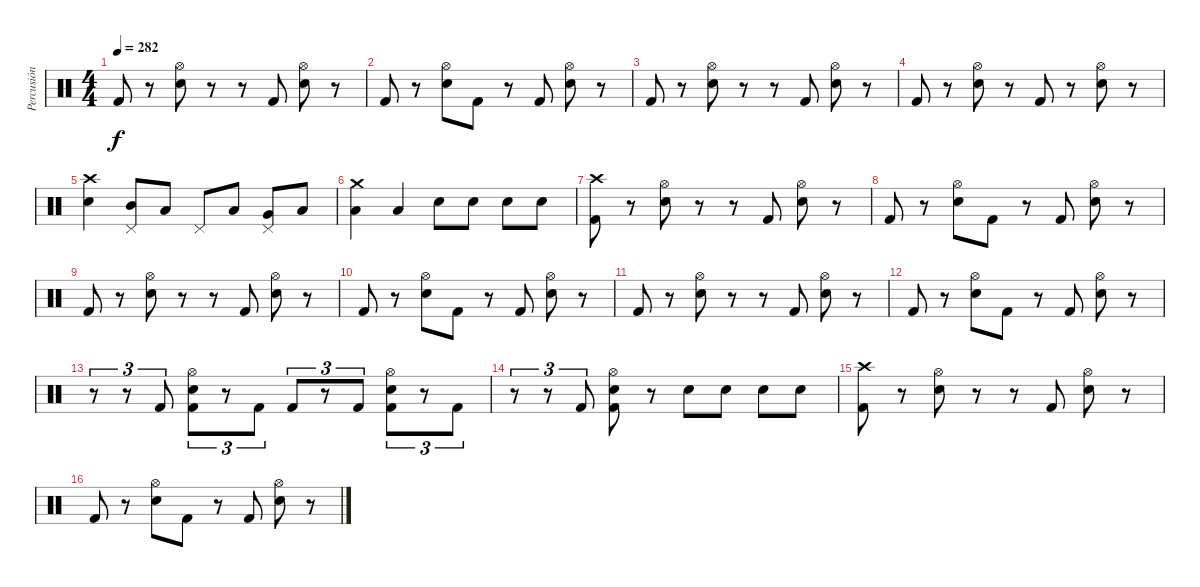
\track ("Percusión" "Percusión") {instrument percussion}
\staff {score}
\articulation defaults
\ts (4 4)
\tempo 282
\clef neutral
\ks c "Kick (hit) 2".8{dy f}
r.8 ("Snare (hit) 2" "Hi-Hat (open)").8 r.8 r.8 "Kick (hit) 2".8 ("Snare (hit) 2" "Hi-Hat (open)").8 r.8 |
"Kick (hit) 2".8 r.8 ("Snare (hit) 2" "Hi-Hat (open)").8 "Kick (hit) 2".8 r.8 "Kick (hit) 2".8 ("Snare (hit) 2" "Hi-Hat (open)").8 r.8 |
"Kick (hit) 2".8 r.8 ("Snare (hit) 2" "Hi-Hat (open)").8 r.8 r.8 "Kick (hit) 2".8 ("Snare (hit) 2" "Hi-Hat (open)").8 r.8 |
"Kick (hit) 2".8 r.8 ("Snare (hit) 2" "Hi-Hat (open)").8 r.8 "Kick (hit) 2".8 r.8 ("Snare (hit) 2" "Hi-Hat (open)").8 r.8 |
("Snare (hit) 2" "Crash high (hit)").4 ("Mid Tom (hit)" "Pedal Hi-Hat (hit)").8 "Low Tom (hit)".8 "Pedal Hi-Hat (hit)".8 "Low Tom (hit)".8 ("Very Low Tom (hit)" "Pedal Hi-Hat (hit)").8 "Low Floor Tom (hit)".8 |
("Low Tom (hit)" "Crash medium (hit)").4 "Low Tom (hit)".4 "Snare (hit) 2".8 "Snare (hit) 2".8 "Snare (hit) 2".8 "Snare (hit) 2".8 |
("Kick (hit) 2" "Crash high (hit)").8 r.8 ("Snare (hit) 2" "Hi-Hat (open)").8 r.8 r.8 "Kick (hit) 2".8 ("Snare (hit) 2" "Hi-Hat (open)").8 r.8 |
"Kick (hit) 2".8 r.8 ("Snare (hit) 2" "Hi-Hat (open)").8 "Kick (hit) 2".8 r.8 "Kick (hit) 2".8 ("Snare (hit) 2" "Hi-Hat (open)").8 r.8 |
"Kick (hit) 2".8 r.8 ("Snare (hit) 2" "Hi-Hat (open)").8 r.8 r.8 "Kick (hit) 2".8 ("Snare (hit) 2" "Hi-Hat (open)").8 r.8 |
"Kick (hit) 2".8 r.8 ("Snare (hit) 2" "Hi-Hat (open)").8 "Kick (hit) 2".8 r.8 "Kick (hit) 2".8 ("Snare (hit) 2" "Hi-Hat (open)").8 r.8 |
"Kick (hit) 2".8 r.8 ("Snare (hit) 2" "Hi-Hat (open)").8 r.8 r.8 "Kick (hit) 2".8 ("Snare (hit) 2" "Hi-Hat (open)").8 r.8 |
"Kick (hit) 2".8 r.8 ("Snare (hit) 2" "Hi-Hat (open)").8 "Kick (hit) 2".8 r.8 "Kick (hit) 2".8 ("Snare (hit) 2" "Hi-Hat (open)").8 r.8 |
r.8{tu (3 2)} r.8{tu (3 2)} "Kick (hit) 2".8{tu (3 2)} ("Kick (hit) 2" "Snare (hit) 2" "Hi-Hat (open)").8{tu (3 2)} r.8{tu (3 2)} "Kick (hit) 2".8{tu (3 2)} "Kick (hit) 2".8{tu (3 2)} r.8{tu (3 2)} "Kick (hit) 2".8{tu (3 2)} ("Kick (hit) 2" "Snare (hit) 2" "Hi-Hat (open)").8{tu (3 2)} r.8{tu (3 2)} "Kick (hit) 2".8{tu (3 2)} |
r.8{tu (3 2)} r.8{tu (3 2)} "Kick (hit) 2".8{tu (3 2)} ("Kick (hit) 2" "Snare (hit) 2" "Hi-Hat (open)").8 r.8 "Snare (hit) 2".8 "Snare (hit) 2".8 "Snare (hit) 2".8 "Snare (hit) 2".8 |
("Kick (hit) 2" "Crash high (hit)").8 r.8 ("Snare (hit) 2" "Hi-Hat (open)").8 r.8 r.8 "Kick (hit) 2".8 ("Snare (hit) 2" "Hi-Hat (open)").8 r.8 |
"Kick (hit) 2".8 r.8 ("Snare (hit) 2" "Hi-Hat (open)").8 "Kick (hit) 2".8 r.8 "Kick (hit) 2".8 ("Snare (hit) 2" "Hi-Hat (open)").8 r.8
